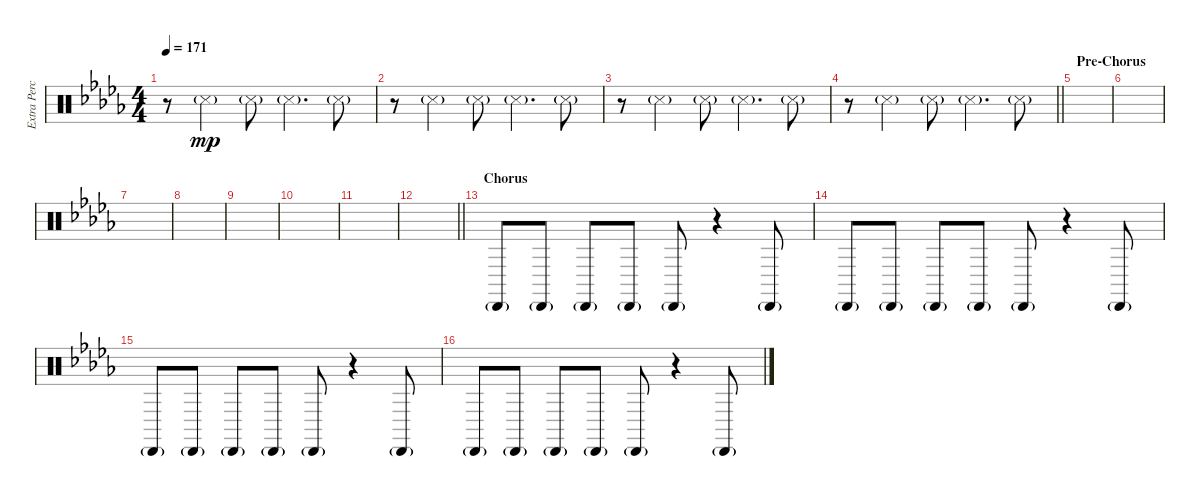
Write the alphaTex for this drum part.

\track ("Extra Percussion" "Extra Perc") {instrument percussion}
\staff {score}
\articulation defaults
\ts (4 4)
\tempo 171
\clef neutral
\ks db
r.8{dy mp} "Metronome (hit)"{g}.4 "Metronome (hit)"{g}.8 "Metronome (hit)"{g}.4{d} "Metronome (hit)"{g}.8 |
r.8 "Metronome (hit)"{g}.4 "Metronome (hit)"{g}.8 "Metronome (hit)"{g}.4{d} "Metronome (hit)"{g}.8 |
r.8 "Metronome (hit)"{g}.4 "Metronome (hit)"{g}.8 "Metronome (hit)"{g}.4{d} "Metronome (hit)"{g}.8 |
\barLineRight lightlight
r.8 "Metronome (hit)"{g}.4 "Metronome (hit)"{g}.8 "Metronome (hit)"{g}.4{d} "Metronome (hit)"{g}.8 |
\section ("" "Pre-Chorus")
|
|
|
|
|
|
|
\barLineRight lightlight
|
\section ("" "Chorus")
"Cabasa (hit)"{g}.8 "Cabasa (hit)"{g}.8 "Cabasa (hit)"{g}.8 "Cabasa (hit)"{g}.8 "Cabasa (hit)"{g}.8 r.4 "Cabasa (hit)"{g}.8 |
"Cabasa (hit)"{g}.8 "Cabasa (hit)"{g}.8 "Cabasa (hit)"{g}.8 "Cabasa (hit)"{g}.8 "Cabasa (hit)"{g}.8 r.4 "Cabasa (hit)"{g}.8 |
"Cabasa (hit)"{g}.8 "Cabasa (hit)"{g}.8 "Cabasa (hit)"{g}.8 "Cabasa (hit)"{g}.8 "Cabasa (hit)"{g}.8 r.4 "Cabasa (hit)"{g}.8 |
"Cabasa (hit)"{g}.8 "Cabasa (hit)"{g}.8 "Cabasa (hit)"{g}.8 "Cabasa (hit)"{g}.8 "Cabasa (hit)"{g}.8 r.4 "Cabasa (hit)"{g}.8
